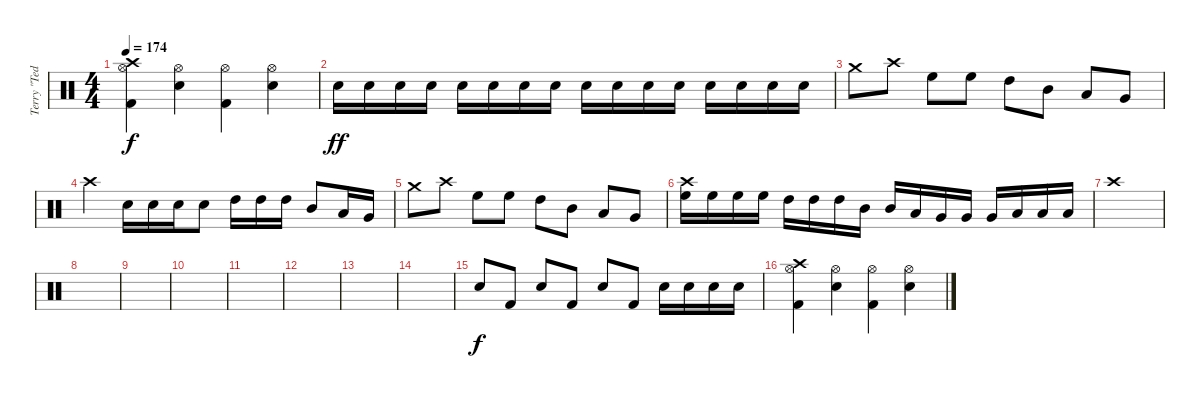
\track ("Terry \"Ted\" Bozzio" "Terry \"Ted") {instrument percussion}
\staff {score}
\articulation defaults
\ts (4 4)
\tempo 174
\clef neutral
\ks c
("Crash high (hit)" "Hi-Hat (open)" "Kick (hit) 2").4{dy f} ("Hi-Hat (open)" "Electric Snare (hit)").4 ("Hi-Hat (open)" "Kick (hit) 2").4 ("Hi-Hat (open)" "Electric Snare (hit)").4 |
"Electric Snare (hit)".16{dy ff} "Electric Snare (hit)".16 "Electric Snare (hit)".16 "Electric Snare (hit)".16 "Electric Snare (hit)".16 "Electric Snare (hit)".16 "Electric Snare (hit)".16 "Electric Snare (hit)".16 "Electric Snare (hit)".16 "Electric Snare (hit)".16 "Electric Snare (hit)".16 "Electric Snare (hit)".16 "Electric Snare (hit)".16 "Electric Snare (hit)".16 "Electric Snare (hit)".16 "Electric Snare (hit)".16 |
"Crash medium (hit)".8 "Crash high (hit)".8 "High Floor Tom (hit)".8 "High Floor Tom (hit)".8 "High Tom (hit)".8 "Mid Tom (hit)".8 "Low Tom (hit)".8 "Very Low Tom (hit)".8 |
"Crash high (hit)".4 "Electric Snare (hit)".16 "Electric Snare (hit)".16 "Electric Snare (hit)".16 "Electric Snare (hit)".8 "High Tom (hit)".16 "High Tom (hit)".16 "High Tom (hit)".16 "Mid Tom (hit)".8 "Low Tom (hit)".16 "Very Low Tom (hit)".16 |
"Crash medium (hit)".8 "Crash high (hit)".8 "High Floor Tom (hit)".8 "High Floor Tom (hit)".8 "High Tom (hit)".8 "Mid Tom (hit)".8 "Low Tom (hit)".8 "Very Low Tom (hit)".8 |
("Crash high (hit)" "High Floor Tom (hit)").16 "High Floor Tom (hit)".16 "High Floor Tom (hit)".16 "High Floor Tom (hit)".16 "High Tom (hit)".16 "High Tom (hit)".16 "High Tom (hit)".16 "Mid Tom (hit)".16 "Mid Tom (hit)".16 "Low Tom (hit)".16 "Very Low Tom (hit)".16 "Very Low Tom (hit)".16 "Very Low Tom (hit)".16 "Low Floor Tom (hit)".16 "Low Floor Tom (hit)".16 "Low Floor Tom (hit)".16 |
"Crash high (hit)".1 |
|
|
|
|
|
|
|
"Electric Snare (hit)".8{dy f} "Kick (hit) 2".8 "Electric Snare (hit)".8 "Kick (hit) 2".8 "Electric Snare (hit)".8 "Kick (hit) 2".8 "Electric Snare (hit)".16 "Electric Snare (hit)".16 "Electric Snare (hit)".16 "Electric Snare (hit)".16 |
("Crash high (hit)" "Hi-Hat (open)" "Kick (hit) 2").4 ("Hi-Hat (open)" "Electric Snare (hit)").4 ("Hi-Hat (open)" "Kick (hit) 2").4 ("Hi-Hat (open)" "Electric Snare (hit)").4
